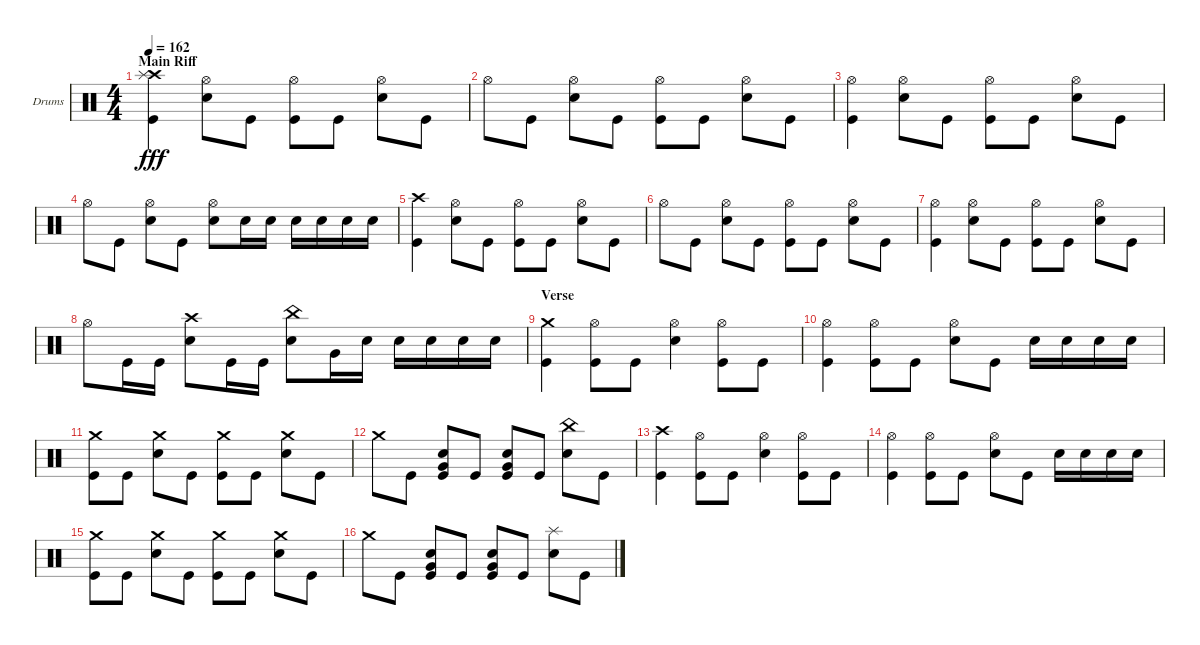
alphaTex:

\bracketExtendMode groupsimilarinstruments
\firstSystemTrackNameOrientation horizontal
\otherSystemsTrackNameOrientation horizontal
\track ("Drumkit" "Drums") {instrument percussion}
\staff {score}
\articulation defaults
\ts (4 4)
\section ("" "Main Riff")
\tempo 162
\clef neutral
\ks c
("Kick (hit)" "Crash high (hit)" "Splash (hit)").4{dy fff} ("Hi-Hat (open)" "Snare (hit) 2").8 "Kick (hit)".8 ("Hi-Hat (open)" "Kick (hit)").8 "Kick (hit)".8 ("Hi-Hat (open)" "Snare (hit) 2").8 "Kick (hit)".8 |
"Hi-Hat (open)".8 "Kick (hit)".8 ("Hi-Hat (open)" "Snare (hit) 2").8 "Kick (hit)".8 ("Hi-Hat (open)" "Kick (hit)").8 "Kick (hit)".8 ("Hi-Hat (open)" "Snare (hit) 2").8 "Kick (hit)".8 |
("Kick (hit)" "Hi-Hat (open)").4 ("Hi-Hat (open)" "Snare (hit) 2").8 "Kick (hit)".8 ("Hi-Hat (open)" "Kick (hit)").8 "Kick (hit)".8 ("Hi-Hat (open)" "Snare (hit) 2").8 "Kick (hit)".8 |
"Hi-Hat (open)".8 "Kick (hit)".8 ("Hi-Hat (open)" "Snare (hit) 2").8 "Kick (hit)".8 ("Snare (hit) 2" "Hi-Hat (open)").8 "Snare (hit) 2".16 "Snare (hit) 2".16 "Snare (hit) 2".16 "Snare (hit) 2".16 "Snare (hit) 2".16 "Snare (hit) 2".16 |
("Kick (hit)" "Crash high (hit)").4 ("Hi-Hat (open)" "Snare (hit) 2").8 "Kick (hit)".8 ("Hi-Hat (open)" "Kick (hit)").8 "Kick (hit)".8 ("Hi-Hat (open)" "Snare (hit) 2").8 "Kick (hit)".8 |
"Hi-Hat (open)".8 "Kick (hit)".8 ("Hi-Hat (open)" "Snare (hit) 2").8 "Kick (hit)".8 ("Hi-Hat (open)" "Kick (hit)").8 "Kick (hit)".8 ("Hi-Hat (open)" "Snare (hit) 2").8 "Kick (hit)".8 |
("Kick (hit)" "Hi-Hat (open)").4 ("Hi-Hat (open)" "Snare (hit) 2").8 "Kick (hit)".8 ("Hi-Hat (open)" "Kick (hit)").8 "Kick (hit)".8 ("Hi-Hat (open)" "Snare (hit) 2").8 "Kick (hit)".8 |
"Hi-Hat (open)".8 "Kick (hit)".16 "Kick (hit)".16 ("Snare (hit) 2" "Crash high (hit)").8 "Kick (hit)".16 "Kick (hit)".16 ("Snare (hit) 2" "China (hit)").8 "Very Low Tom (hit)".16 "Snare (hit) 2".16 "Snare (hit) 2".16 "Snare (hit) 2".16 "Snare (hit) 2".16 "Snare (hit) 2".16 |
\section ("" "Verse")
("Crash medium (hit)" "Kick (hit)").4 ("Hi-Hat (open)" "Kick (hit)").8 "Kick (hit)".8 ("Hi-Hat (open)" "Snare (hit) 2").4 ("Hi-Hat (open)" "Kick (hit)").8 "Kick (hit)".8 |
("Hi-Hat (open)" "Kick (hit)").4 ("Hi-Hat (open)" "Kick (hit)").8 "Kick (hit)".8 ("Hi-Hat (open)" "Snare (hit) 2").8 "Kick (hit)".8 "Snare (hit) 2".16 "Snare (hit) 2".16 "Snare (hit) 2".16 "Snare (hit) 2".16 |
("Kick (hit)" "Crash medium (hit)").8 "Kick (hit)".8 ("Snare (hit) 2" "Crash medium (hit)").8 "Kick (hit)".8 ("Kick (hit)" "Crash medium (hit)").8 "Kick (hit)".8 ("Snare (hit) 2" "Crash medium (hit)").8 "Kick (hit)".8 |
"Crash medium (hit)".8 "Kick (hit)".8 ("Snare (hit) 2" "Kick (hit)" "Very Low Tom (hit)").8 "Kick (hit)".8 ("Kick (hit)" "Very Low Tom (hit)" "Snare (hit) 2").8 "Kick (hit)".8 ("Snare (hit) 2" "China (hit)").8 "Kick (hit)".8 |
("Kick (hit)" "Crash high (hit)").4 ("Hi-Hat (open)" "Kick (hit)").8 "Kick (hit)".8 ("Hi-Hat (open)" "Snare (hit) 2").4 ("Hi-Hat (open)" "Kick (hit)").8 "Kick (hit)".8 |
("Hi-Hat (open)" "Kick (hit)").4 ("Hi-Hat (open)" "Kick (hit)").8 "Kick (hit)".8 ("Hi-Hat (open)" "Snare (hit) 2").8 "Kick (hit)".8 "Snare (hit) 2".16 "Snare (hit) 2".16 "Snare (hit) 2".16 "Snare (hit) 2".16 |
("Kick (hit)" "Crash medium (hit)").8 "Kick (hit)".8 ("Snare (hit) 2" "Crash medium (hit)").8 "Kick (hit)".8 ("Kick (hit)" "Crash medium (hit)").8 "Kick (hit)".8 ("Snare (hit) 2" "Crash medium (hit)").8 "Kick (hit)".8 |
"Crash medium (hit)".8 "Kick (hit)".8 ("Snare (hit) 2" "Kick (hit)" "Very Low Tom (hit)").8 "Kick (hit)".8 ("Kick (hit)" "Very Low Tom (hit)" "Snare (hit) 2").8 "Kick (hit)".8 ("Snare (hit) 2" "Splash (hit)").8 "Kick (hit)".8
